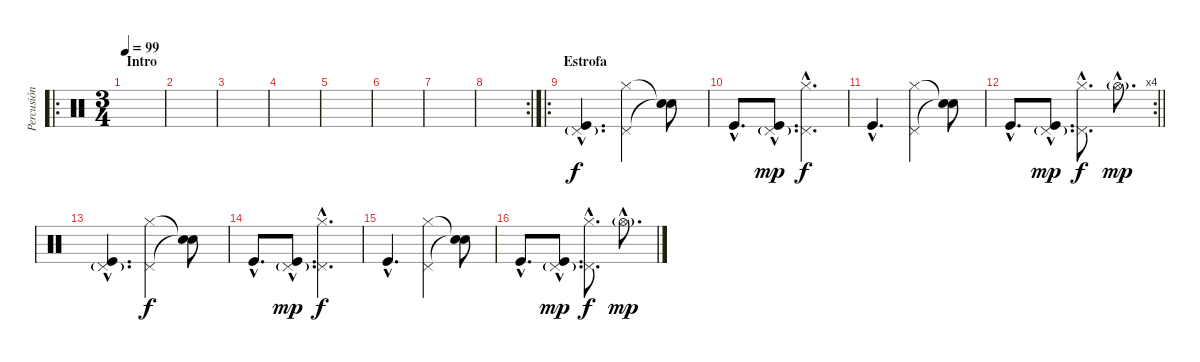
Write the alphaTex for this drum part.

\track ("Percusión" "Percusión") {instrument percussion}
\staff {score}
\articulation defaults
\ro
\ts (3 4)
\section ("" "Intro")
\tempo 99
\clef neutral
\ks c
|
|
|
|
|
|
|
\rc 2
|
\ro
\section ("" "Estrofa")
("Kick (hit)"{hac} "Pedal Hi-Hat (hit)"{g hac}).4{d} ("Hi-Hat (closed)" "Pedal Hi-Hat (hit)").4{dy f} ("Snare (hit)"{t} "Snare (hit)"{t}).8 |
"Kick (hit)"{hac}.8{d} ("Kick (hit)"{hac} "Pedal Hi-Hat (hit)"{g hac}).8{d dy mp} ("Hi-Hat (closed)"{hac} "Pedal Hi-Hat (hit)"{hac}).4{d dy f} |
"Kick (hit)"{hac}.4{d} ("Hi-Hat (closed)" "Pedal Hi-Hat (hit)").4 ("Snare (hit)"{t} "Snare (hit)"{t}).8 |
\rc 4
\barLineRight lightlight "Kick (hit)"{hac}.8{d}
("Kick (hit)"{hac} "Pedal Hi-Hat (hit)"{g hac}).8{d dy mp} ("Hi-Hat (closed)"{hac} "Pedal Hi-Hat (hit)"{hac}).8{d dy f} "Hi-Hat (open)"{g hac}.8{d dy mp} |
("Kick (hit)"{hac} "Pedal Hi-Hat (hit)"{g hac}).4{d} ("Hi-Hat (closed)" "Pedal Hi-Hat (hit)").4{dy f} ("Snare (hit)"{t} "Snare (hit)"{t}).8 |
"Kick (hit)"{hac}.8{d} ("Kick (hit)"{hac} "Pedal Hi-Hat (hit)"{g hac}).8{d dy mp} ("Hi-Hat (closed)"{hac} "Pedal Hi-Hat (hit)"{hac}).4{d dy f} |
"Kick (hit)"{hac}.4{d} ("Hi-Hat (closed)" "Pedal Hi-Hat (hit)").4 ("Snare (hit)"{t} "Snare (hit)"{t}).8 |
"Kick (hit)"{hac}.8{d} ("Kick (hit)"{hac} "Pedal Hi-Hat (hit)"{g hac}).8{d dy mp} ("Hi-Hat (closed)"{hac} "Pedal Hi-Hat (hit)"{hac}).8{d dy f} "Hi-Hat (open)"{g hac}.8{d dy mp}
